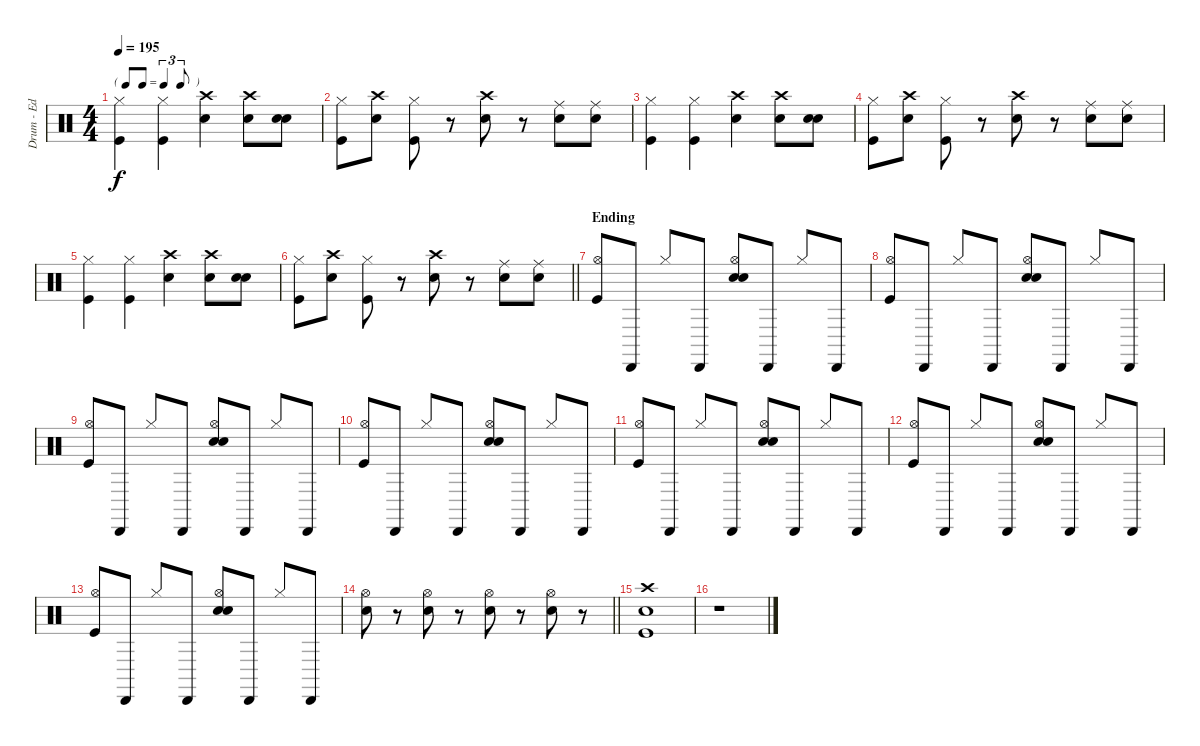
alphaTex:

\track ("Drum - Ed" "Drum - Ed") {instrument percussion}
\staff {score}
\articulation defaults
\ts (4 4)
\tf triplet8th
\tempo 195
\clef neutral
\ks c
("Hi-Hat (closed)" "Kick (hit)").4{dy f} ("Hi-Hat (closed)" "Kick (hit)").4 ("Crash high (hit)" "Electric Snare (hit)").4 ("Crash high (hit)" "Electric Snare (hit)").8 ("Hand Clap (hit)" "Electric Snare (hit)").8 |
("Hi-Hat (closed)" "Kick (hit)").8 ("Crash high (hit)" "Electric Snare (hit)").8 ("Hi-Hat (closed)" "Kick (hit)").8 r.8 ("Crash high (hit)" "Electric Snare (hit)").8 r.8 ("Ride (middle)" "Electric Snare (hit)").8 ("Ride (middle)" "Electric Snare (hit)").8 |
("Hi-Hat (closed)" "Kick (hit)").4 ("Hi-Hat (closed)" "Kick (hit)").4 ("Crash high (hit)" "Electric Snare (hit)").4 ("Crash high (hit)" "Electric Snare (hit)").8 ("Hand Clap (hit)" "Electric Snare (hit)").8 |
("Hi-Hat (closed)" "Kick (hit)").8 ("Crash high (hit)" "Electric Snare (hit)").8 ("Hi-Hat (closed)" "Kick (hit)").8 r.8 ("Crash high (hit)" "Electric Snare (hit)").8 r.8 ("Ride (middle)" "Electric Snare (hit)").8 ("Ride (middle)" "Electric Snare (hit)").8 |
("Hi-Hat (closed)" "Kick (hit)").4 ("Hi-Hat (closed)" "Kick (hit)").4 ("Crash high (hit)" "Electric Snare (hit)").4 ("Crash high (hit)" "Electric Snare (hit)").8 ("Hand Clap (hit)" "Electric Snare (hit)").8 |
\barLineRight lightlight
("Hi-Hat (closed)" "Kick (hit)").8 ("Crash high (hit)" "Electric Snare (hit)").8 ("Hi-Hat (closed)" "Kick (hit)").8 r.8 ("Crash high (hit)" "Electric Snare (hit)").8 r.8 ("Ride (middle)" "Electric Snare (hit)").8 ("Ride (middle)" "Electric Snare (hit)").8 |
\section ("" "Ending")
("Hi-Hat (open)" "Kick (hit)").8 "Cabasa (hit)".8 "Hi-Hat (closed)".8 "Cabasa (hit)".8 ("Hi-Hat (open)" "Hand Clap (hit)" "Electric Snare (hit)").8 "Cabasa (hit)".8 "Hi-Hat (closed)".8 "Cabasa (hit)".8 |
("Hi-Hat (open)" "Kick (hit)").8 "Cabasa (hit)".8 "Hi-Hat (closed)".8 "Cabasa (hit)".8 ("Hi-Hat (open)" "Hand Clap (hit)" "Electric Snare (hit)").8 "Cabasa (hit)".8 "Hi-Hat (closed)".8 "Cabasa (hit)".8 |
("Hi-Hat (open)" "Kick (hit)").8 "Cabasa (hit)".8 "Hi-Hat (closed)".8 "Cabasa (hit)".8 ("Hi-Hat (open)" "Hand Clap (hit)" "Electric Snare (hit)").8 "Cabasa (hit)".8 "Hi-Hat (closed)".8 "Cabasa (hit)".8 |
("Hi-Hat (open)" "Kick (hit)").8 "Cabasa (hit)".8 "Hi-Hat (closed)".8 "Cabasa (hit)".8 ("Hi-Hat (open)" "Hand Clap (hit)" "Electric Snare (hit)").8 "Cabasa (hit)".8 "Hi-Hat (closed)".8 "Cabasa (hit)".8 |
("Hi-Hat (open)" "Kick (hit)").8 "Cabasa (hit)".8 "Hi-Hat (closed)".8 "Cabasa (hit)".8 ("Hi-Hat (open)" "Hand Clap (hit)" "Electric Snare (hit)").8 "Cabasa (hit)".8 "Hi-Hat (closed)".8 "Cabasa (hit)".8 |
("Hi-Hat (open)" "Kick (hit)").8 "Cabasa (hit)".8 "Hi-Hat (closed)".8 "Cabasa (hit)".8 ("Hi-Hat (open)" "Hand Clap (hit)" "Electric Snare (hit)").8 "Cabasa (hit)".8 "Hi-Hat (closed)".8 "Cabasa (hit)".8 |
("Hi-Hat (open)" "Kick (hit)").8 "Cabasa (hit)".8 "Hi-Hat (closed)".8 "Cabasa (hit)".8 ("Hi-Hat (open)" "Hand Clap (hit)" "Electric Snare (hit)").8 "Cabasa (hit)".8 "Hi-Hat (closed)".8 "Cabasa (hit)".8 |
\barLineRight lightlight
("Hi-Hat (open)" "Electric Snare (hit)").8 r.8 ("Hi-Hat (open)" "Electric Snare (hit)").8 r.8 ("Hi-Hat (open)" "Electric Snare (hit)").8 r.8 ("Hi-Hat (open)" "Electric Snare (hit)").8 r.8 |
("Crash high (hit)" "Electric Snare (hit)" "Kick (hit)").1 |
r.1
